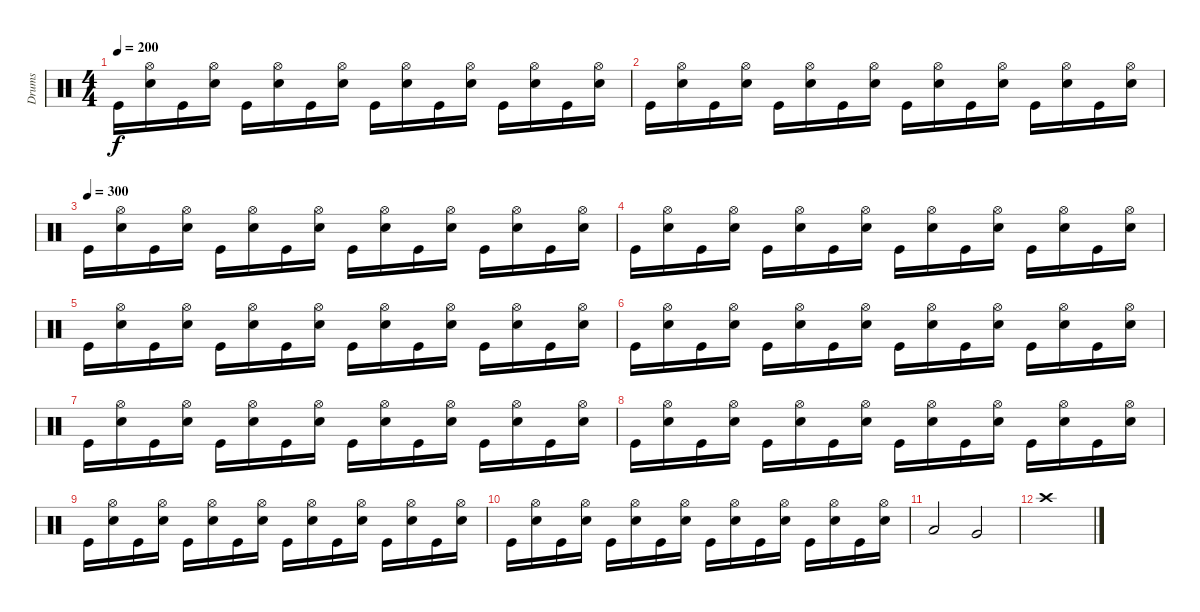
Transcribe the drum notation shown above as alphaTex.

\track ("Drums" "Drums") {instrument percussion}
\staff {score}
\articulation defaults
\ts (4 4)
\tempo 200
\clef neutral
\ks c "Kick (hit)".16{dy f}
("Hi-Hat (open)" "Electric Snare (hit)").16 "Kick (hit)".16 ("Hi-Hat (open)" "Electric Snare (hit)").16 "Kick (hit)".16 ("Hi-Hat (open)" "Electric Snare (hit)").16 "Kick (hit)".16 ("Hi-Hat (open)" "Electric Snare (hit)").16 "Kick (hit)".16 ("Hi-Hat (open)" "Electric Snare (hit)").16 "Kick (hit)".16 ("Hi-Hat (open)" "Electric Snare (hit)").16 "Kick (hit)".16 ("Hi-Hat (open)" "Electric Snare (hit)").16 "Kick (hit)".16 ("Hi-Hat (open)" "Electric Snare (hit)").16 |
"Kick (hit)".16 ("Hi-Hat (open)" "Electric Snare (hit)").16 "Kick (hit)".16 ("Hi-Hat (open)" "Electric Snare (hit)").16 "Kick (hit)".16 ("Hi-Hat (open)" "Electric Snare (hit)").16 "Kick (hit)".16 ("Hi-Hat (open)" "Electric Snare (hit)").16 "Kick (hit)".16 ("Hi-Hat (open)" "Electric Snare (hit)").16 "Kick (hit)".16 ("Hi-Hat (open)" "Electric Snare (hit)").16 "Kick (hit)".16 ("Hi-Hat (open)" "Electric Snare (hit)").16 "Kick (hit)".16 ("Hi-Hat (open)" "Electric Snare (hit)").16 |
\tempo (300)
"Kick (hit)".16 ("Hi-Hat (open)" "Electric Snare (hit)").16 "Kick (hit)".16 ("Hi-Hat (open)" "Electric Snare (hit)").16 "Kick (hit)".16 ("Hi-Hat (open)" "Electric Snare (hit)").16 "Kick (hit)".16 ("Hi-Hat (open)" "Electric Snare (hit)").16 "Kick (hit)".16 ("Hi-Hat (open)" "Electric Snare (hit)").16 "Kick (hit)".16 ("Hi-Hat (open)" "Electric Snare (hit)").16 "Kick (hit)".16 ("Hi-Hat (open)" "Electric Snare (hit)").16 "Kick (hit)".16 ("Hi-Hat (open)" "Electric Snare (hit)").16 |
"Kick (hit)".16 ("Hi-Hat (open)" "Electric Snare (hit)").16 "Kick (hit)".16 ("Hi-Hat (open)" "Electric Snare (hit)").16 "Kick (hit)".16 ("Hi-Hat (open)" "Electric Snare (hit)").16 "Kick (hit)".16 ("Hi-Hat (open)" "Electric Snare (hit)").16 "Kick (hit)".16 ("Hi-Hat (open)" "Electric Snare (hit)").16 "Kick (hit)".16 ("Hi-Hat (open)" "Electric Snare (hit)").16 "Kick (hit)".16 ("Hi-Hat (open)" "Electric Snare (hit)").16 "Kick (hit)".16 ("Hi-Hat (open)" "Electric Snare (hit)").16 |
"Kick (hit)".16 ("Hi-Hat (open)" "Electric Snare (hit)").16 "Kick (hit)".16 ("Hi-Hat (open)" "Electric Snare (hit)").16 "Kick (hit)".16 ("Hi-Hat (open)" "Electric Snare (hit)").16 "Kick (hit)".16 ("Hi-Hat (open)" "Electric Snare (hit)").16 "Kick (hit)".16 ("Hi-Hat (open)" "Electric Snare (hit)").16 "Kick (hit)".16 ("Hi-Hat (open)" "Electric Snare (hit)").16 "Kick (hit)".16 ("Hi-Hat (open)" "Electric Snare (hit)").16 "Kick (hit)".16 ("Hi-Hat (open)" "Electric Snare (hit)").16 |
"Kick (hit)".16 ("Hi-Hat (open)" "Electric Snare (hit)").16 "Kick (hit)".16 ("Hi-Hat (open)" "Electric Snare (hit)").16 "Kick (hit)".16 ("Hi-Hat (open)" "Electric Snare (hit)").16 "Kick (hit)".16 ("Hi-Hat (open)" "Electric Snare (hit)").16 "Kick (hit)".16 ("Hi-Hat (open)" "Electric Snare (hit)").16 "Kick (hit)".16 ("Hi-Hat (open)" "Electric Snare (hit)").16 "Kick (hit)".16 ("Hi-Hat (open)" "Electric Snare (hit)").16 "Kick (hit)".16 ("Hi-Hat (open)" "Electric Snare (hit)").16 |
"Kick (hit)".16 ("Hi-Hat (open)" "Electric Snare (hit)").16 "Kick (hit)".16 ("Hi-Hat (open)" "Electric Snare (hit)").16 "Kick (hit)".16 ("Hi-Hat (open)" "Electric Snare (hit)").16 "Kick (hit)".16 ("Hi-Hat (open)" "Electric Snare (hit)").16 "Kick (hit)".16 ("Hi-Hat (open)" "Electric Snare (hit)").16 "Kick (hit)".16 ("Hi-Hat (open)" "Electric Snare (hit)").16 "Kick (hit)".16 ("Hi-Hat (open)" "Electric Snare (hit)").16 "Kick (hit)".16 ("Hi-Hat (open)" "Electric Snare (hit)").16 |
"Kick (hit)".16 ("Hi-Hat (open)" "Electric Snare (hit)").16 "Kick (hit)".16 ("Hi-Hat (open)" "Electric Snare (hit)").16 "Kick (hit)".16 ("Hi-Hat (open)" "Electric Snare (hit)").16 "Kick (hit)".16 ("Hi-Hat (open)" "Electric Snare (hit)").16 "Kick (hit)".16 ("Hi-Hat (open)" "Electric Snare (hit)").16 "Kick (hit)".16 ("Hi-Hat (open)" "Electric Snare (hit)").16 "Kick (hit)".16 ("Hi-Hat (open)" "Electric Snare (hit)").16 "Kick (hit)".16 ("Hi-Hat (open)" "Electric Snare (hit)").16 |
"Kick (hit)".16 ("Hi-Hat (open)" "Electric Snare (hit)").16 "Kick (hit)".16 ("Hi-Hat (open)" "Electric Snare (hit)").16 "Kick (hit)".16 ("Hi-Hat (open)" "Electric Snare (hit)").16 "Kick (hit)".16 ("Hi-Hat (open)" "Electric Snare (hit)").16 "Kick (hit)".16 ("Hi-Hat (open)" "Electric Snare (hit)").16 "Kick (hit)".16 ("Hi-Hat (open)" "Electric Snare (hit)").16 "Kick (hit)".16 ("Hi-Hat (open)" "Electric Snare (hit)").16 "Kick (hit)".16 ("Hi-Hat (open)" "Electric Snare (hit)").16 |
"Kick (hit)".16 ("Hi-Hat (open)" "Electric Snare (hit)").16 "Kick (hit)".16 ("Hi-Hat (open)" "Electric Snare (hit)").16 "Kick (hit)".16 ("Hi-Hat (open)" "Electric Snare (hit)").16 "Kick (hit)".16 ("Hi-Hat (open)" "Electric Snare (hit)").16 "Kick (hit)".16 ("Hi-Hat (open)" "Electric Snare (hit)").16 "Kick (hit)".16 ("Hi-Hat (open)" "Electric Snare (hit)").16 "Kick (hit)".16 ("Hi-Hat (open)" "Electric Snare (hit)").16 "Kick (hit)".16 ("Hi-Hat (open)" "Electric Snare (hit)").16 |
"Low Tom (hit)".2 "Very Low Tom (hit)".2 |
"Crash high (hit)".1
